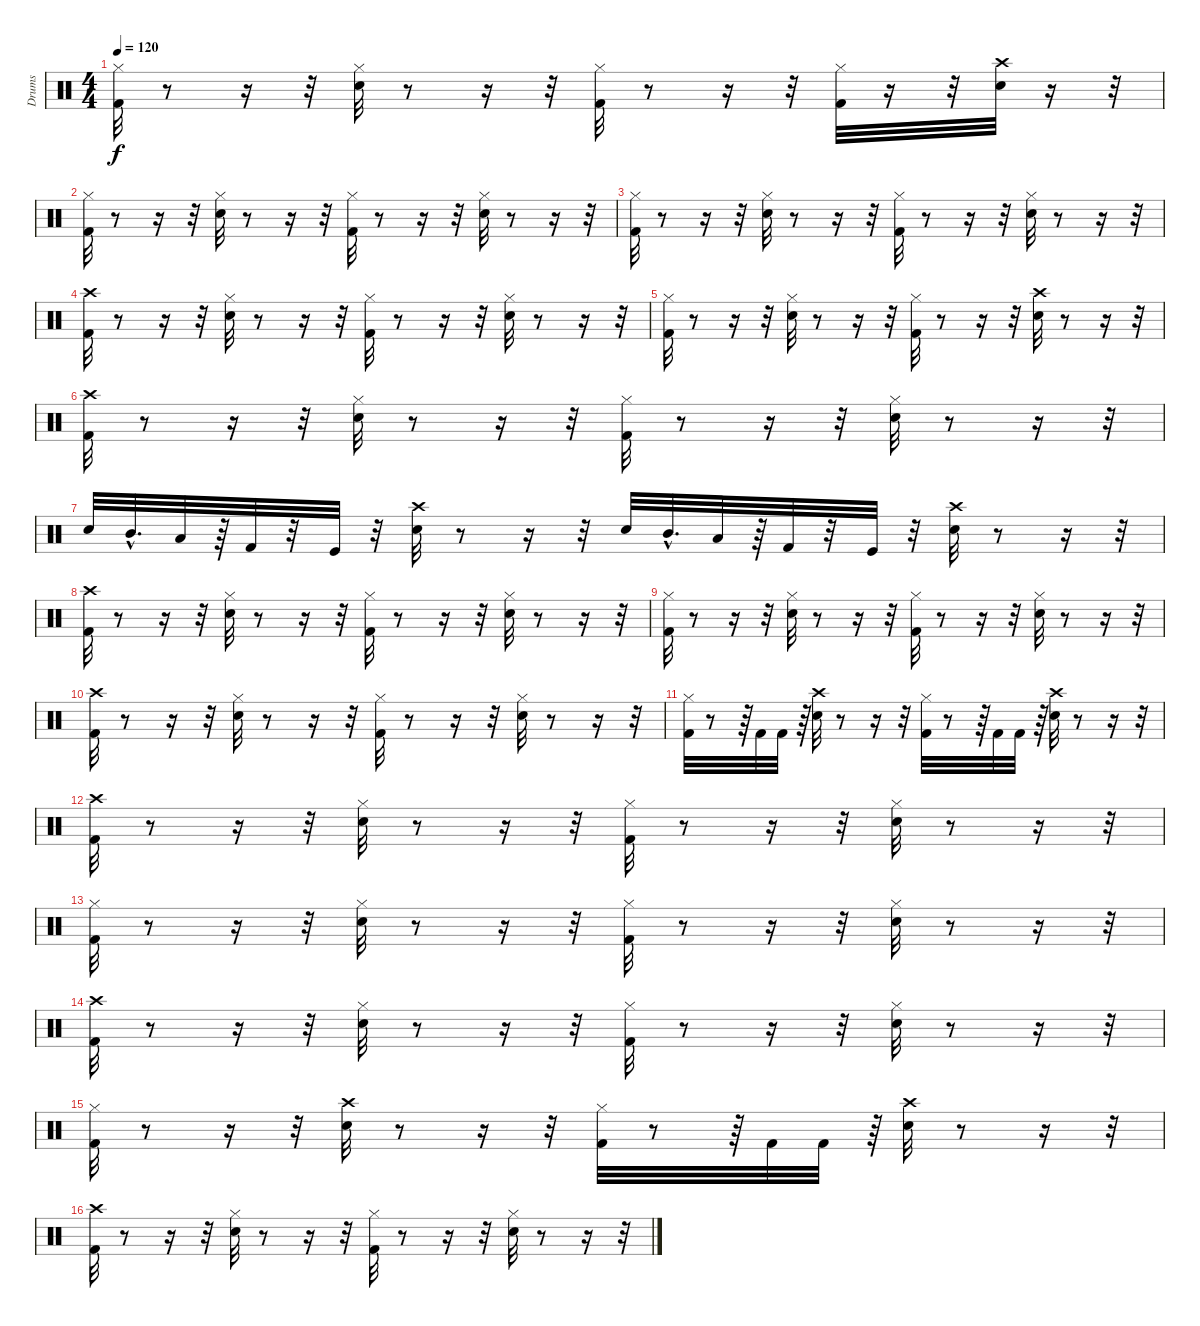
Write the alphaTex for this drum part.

\track ("Drums" "Drums") {instrument percussion}
\staff {score}
\articulation defaults
\ts (4 4)
\tempo 120
\clef neutral
\ks c
("Kick (hit) 2" "Hi-Hat (closed)").32{dy f} r.8 r.16 r.32 ("Snare (hit) 2" "Hi-Hat (closed)").32 r.8 r.16 r.32 ("Kick (hit) 2" "Hi-Hat (closed)").32 r.8 r.16 r.32 ("Kick (hit) 2" "Hi-Hat (closed)").32 r.16 r.32 ("Snare (hit) 2" "Crash high (hit)").32 r.16 r.32 |
("Kick (hit) 2" "Hi-Hat (closed)").32 r.8 r.16 r.32 ("Snare (hit) 2" "Hi-Hat (closed)").32 r.8 r.16 r.32 ("Kick (hit) 2" "Hi-Hat (closed)").32 r.8 r.16 r.32 ("Snare (hit) 2" "Hi-Hat (closed)").32 r.8 r.16 r.32 |
("Hi-Hat (closed)" "Kick (hit) 2").32 r.8 r.16 r.32 ("Hi-Hat (closed)" "Snare (hit) 2").32 r.8 r.16 r.32 ("Hi-Hat (closed)" "Kick (hit) 2").32 r.8 r.16 r.32 ("Hi-Hat (closed)" "Snare (hit) 2").32 r.8 r.16 r.32 |
("Kick (hit) 2" "Crash high (hit)").32 r.8 r.16 r.32 ("Snare (hit) 2" "Hi-Hat (closed)").32 r.8 r.16 r.32 ("Kick (hit) 2" "Hi-Hat (closed)").32 r.8 r.16 r.32 ("Snare (hit) 2" "Hi-Hat (closed)").32 r.8 r.16 r.32 |
("Hi-Hat (closed)" "Kick (hit) 2").32 r.8 r.16 r.32 ("Hi-Hat (closed)" "Snare (hit) 2").32 r.8 r.16 r.32 ("Hi-Hat (closed)" "Kick (hit) 2").32 r.8 r.16 r.32 ("Crash high (hit)" "Snare (hit) 2").32 r.8 r.16 r.32 |
("Kick (hit) 2" "Crash high (hit)").32 r.8 r.16 r.32 ("Snare (hit) 2" "Hi-Hat (closed)").32 r.8 r.16 r.32 ("Kick (hit) 2" "Hi-Hat (closed)").32 r.8 r.16 r.32 ("Snare (hit) 2" "Hi-Hat (closed)").32 r.8 r.16 r.32 |
"Snare (hit) 2".32 "Mid Tom (hit)"{hac}.32{d} "Low Floor Tom (hit)".32 r.64 "Kick (hit) 2".32 r.32 "Kick (hit)".32 r.32 ("Snare (hit) 2" "Crash high (hit)").32 r.8 r.16 r.32 "Snare (hit) 2".32 "Mid Tom (hit)"{hac}.32{d} "Low Floor Tom (hit)".32 r.64 "Kick (hit) 2".32 r.32 "Kick (hit)".32 r.32 ("Crash high (hit)" "Snare (hit) 2").32 r.8 r.16 r.32 |
("Kick (hit) 2" "Crash high (hit)").32 r.8 r.16 r.32 ("Snare (hit) 2" "Hi-Hat (closed)").32 r.8 r.16 r.32 ("Kick (hit) 2" "Hi-Hat (closed)").32 r.8 r.16 r.32 ("Snare (hit) 2" "Hi-Hat (closed)").32 r.8 r.16 r.32 |
("Kick (hit) 2" "Hi-Hat (closed)").32 r.8 r.16 r.32 ("Snare (hit) 2" "Hi-Hat (closed)").32 r.8 r.16 r.32 ("Kick (hit) 2" "Hi-Hat (closed)").32 r.8 r.16 r.32 ("Snare (hit) 2" "Hi-Hat (closed)").32 r.8 r.16 r.32 |
("Kick (hit) 2" "Crash high (hit)").32 r.8 r.16 r.32 ("Hi-Hat (closed)" "Snare (hit) 2").32 r.8 r.16 r.32 ("Hi-Hat (closed)" "Kick (hit) 2").32 r.8 r.16 r.32 ("Hi-Hat (closed)" "Snare (hit) 2").32 r.8 r.16 r.32 |
("Kick (hit) 2" "Hi-Hat (closed)").32 r.8 r.64 "Kick (hit) 2".32 "Kick (hit) 2".32 r.64 ("Crash high (hit)" "Snare (hit) 2").32 r.8 r.16 r.32 ("Kick (hit) 2" "Hi-Hat (closed)").32 r.8 r.64 "Kick (hit) 2".32 "Kick (hit) 2".32 r.64 ("Crash high (hit)" "Snare (hit) 2").32 r.8 r.16 r.32 |
("Kick (hit) 2" "Crash high (hit)").32 r.8 r.16 r.32 ("Snare (hit) 2" "Hi-Hat (closed)").32 r.8 r.16 r.32 ("Kick (hit) 2" "Hi-Hat (closed)").32 r.8 r.16 r.32 ("Snare (hit) 2" "Hi-Hat (closed)").32 r.8 r.16 r.32 |
("Hi-Hat (closed)" "Kick (hit) 2").32 r.8 r.16 r.32 ("Hi-Hat (closed)" "Snare (hit) 2").32 r.8 r.16 r.32 ("Hi-Hat (closed)" "Kick (hit) 2").32 r.8 r.16 r.32 ("Hi-Hat (closed)" "Snare (hit) 2").32 r.8 r.16 r.32 |
("Kick (hit) 2" "Crash high (hit)").32 r.8 r.16 r.32 ("Snare (hit) 2" "Hi-Hat (closed)").32 r.8 r.16 r.32 ("Kick (hit) 2" "Hi-Hat (closed)").32 r.8 r.16 r.32 ("Snare (hit) 2" "Hi-Hat (closed)").32 r.8 r.16 r.32 |
("Hi-Hat (closed)" "Kick (hit) 2").32 r.8 r.16 r.32 ("Crash high (hit)" "Snare (hit) 2").32 r.8 r.16 r.32 ("Kick (hit) 2" "Hi-Hat (closed)").32 r.8 r.64 "Kick (hit) 2".32 "Kick (hit) 2".32 r.64 ("Crash high (hit)" "Snare (hit) 2").32 r.8 r.16 r.32 |
("Kick (hit) 2" "Crash high (hit)").32 r.8 r.16 r.32 ("Snare (hit) 2" "Hi-Hat (closed)").32 r.8 r.16 r.32 ("Kick (hit) 2" "Hi-Hat (closed)").32 r.8 r.16 r.32 ("Snare (hit) 2" "Hi-Hat (closed)").32 r.8 r.16 r.32
